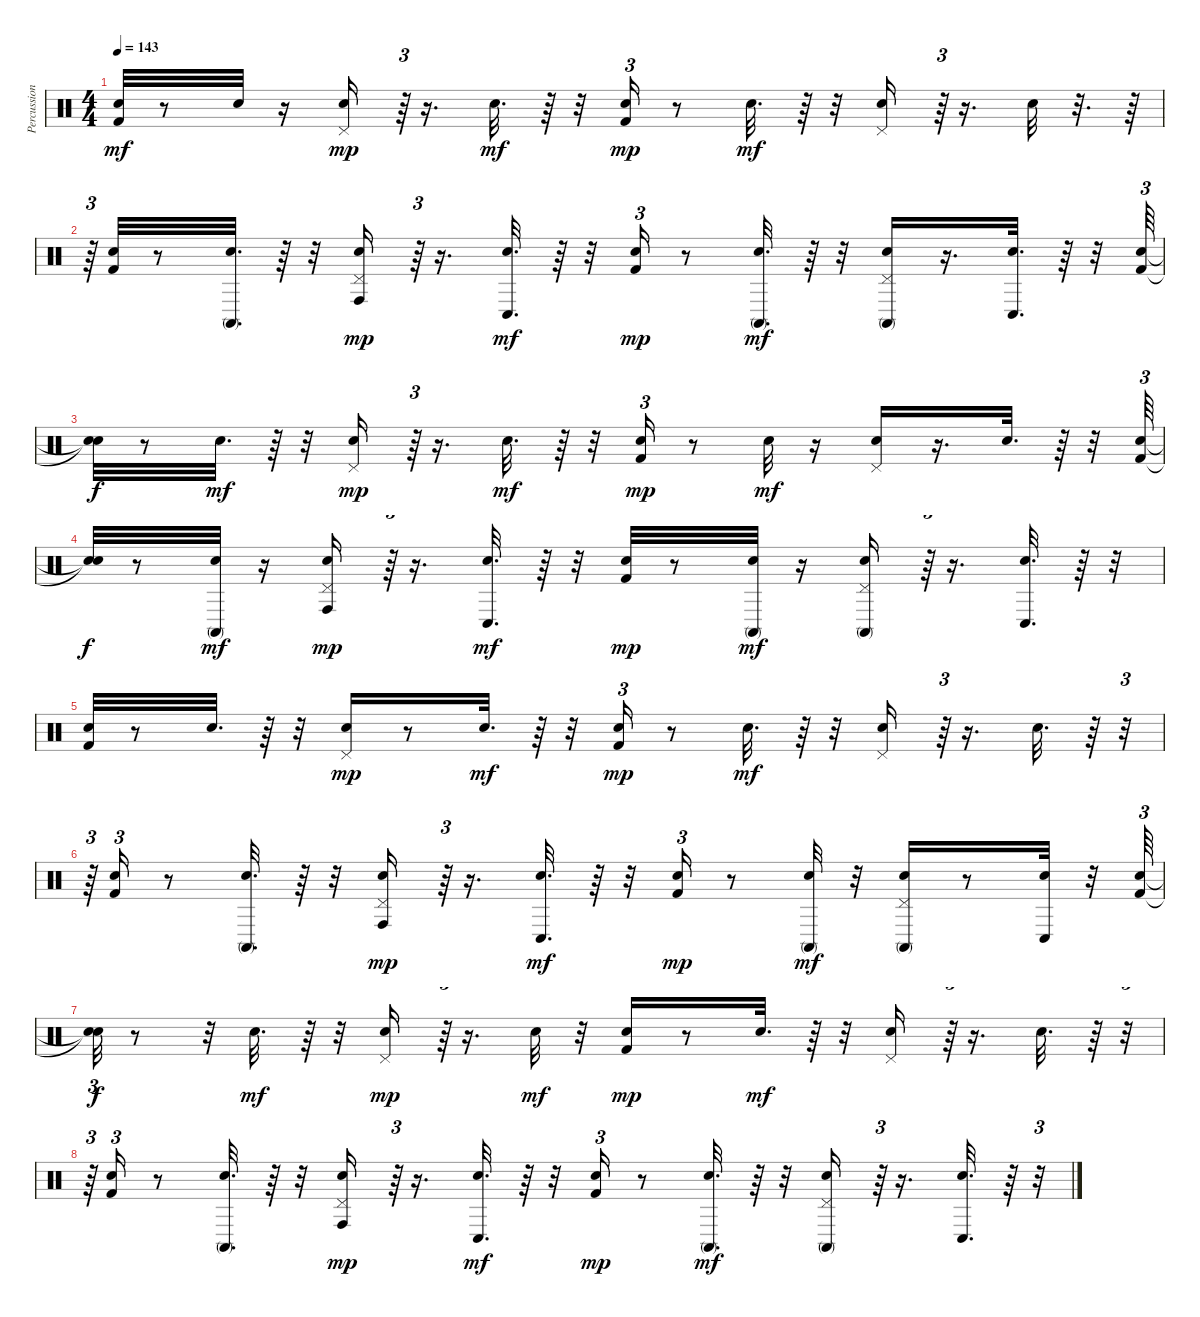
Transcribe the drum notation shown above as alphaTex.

\track ("Percussion" "Percussion") {instrument percussion}
\staff {score}
\articulation defaults
\ts (4 4)
\tempo 143
\clef neutral
\ks c
("Kick (hit) 2" "Snare (hit) 2").32{dy mf} r.8 "Snare (hit) 2".32 r.16 ("Hand Clap (hit)" "Pedal Hi-Hat (hit)").16{dy mp} r.64{tu (3 2)} r.16{d} "Hand Clap (hit)".32{d dy mf} r.64 r.32 ("Kick (hit) 2" "Snare (hit) 2").16{tu (3 2) dy mp} r.8 "Snare (hit) 2".32{d dy mf} r.64 r.32 ("Hand Clap (hit)" "Pedal Hi-Hat (hit)").16 r.64{tu (3 2)} r.16{d} "Hand Clap (hit)".32 r.32{d} r.64 |
r.64{tu (3 2)} ("Kick (hit) 2" "Snare (hit) 2").32 r.8 ("Snare (hit) 2" "Conga high (mute)").32{d} r.64 r.32 ("Hand Clap (hit)" "Pedal Hi-Hat (hit)" "Conga high (hit)").16{dy mp} r.64{tu (3 2)} r.16{d} ("Hand Clap (hit)" "Conga low (hit)").32{d dy mf} r.64 r.32 ("Kick (hit) 2" "Snare (hit) 2").16{tu (3 2) dy mp} r.8 ("Snare (hit) 2" "Conga high (mute)").32{d dy mf} r.64 r.32 ("Hand Clap (hit)" "Pedal Hi-Hat (hit)" "Conga high (mute)").16 r.16{d} ("Hand Clap (hit)" "Conga low (hit)").32{d} r.64 r.32 ("Kick (hit) 2" "Snare (hit) 2").64{tu (3 2)} |
("Snare (hit)"{t} "Snare (hit)"{t}).32{dy f} r.8 "Snare (hit) 2".32{d dy mf} r.64 r.32 ("Hand Clap (hit)" "Pedal Hi-Hat (hit)").16{dy mp} r.64{tu (3 2)} r.16{d} "Hand Clap (hit)".32{d dy mf} r.64 r.32 ("Kick (hit) 2" "Snare (hit) 2").16{tu (3 2) dy mp} r.8 "Snare (hit) 2".32{dy mf} r.16 ("Hand Clap (hit)" "Pedal Hi-Hat (hit)").16 r.16{d} "Hand Clap (hit)".32{d} r.64 r.32 ("Kick (hit) 2" "Snare (hit) 2").64{tu (3 2)} |
("Snare (hit)"{t} "Snare (hit)"{t}).32{dy f} r.8 ("Snare (hit) 2" "Conga high (mute)").32{dy mf} r.16 ("Pedal Hi-Hat (hit)" "Hand Clap (hit)" "Conga high (hit)").16{dy mp} r.64{tu (3 2)} r.16{d} ("Hand Clap (hit)" "Conga low (hit)").32{d dy mf} r.64 r.32 ("Kick (hit) 2" "Snare (hit) 2").32{dy mp} r.8 ("Snare (hit) 2" "Conga high (mute)").32{dy mf} r.16 ("Hand Clap (hit)" "Pedal Hi-Hat (hit)" "Conga high (mute)").16 r.64{tu (3 2)} r.16{d} ("Hand Clap (hit)" "Conga low (hit)").32{d} r.64 r.32 |
("Kick (hit) 2" "Snare (hit) 2").32 r.8 "Snare (hit) 2".32{d} r.64 r.32 ("Pedal Hi-Hat (hit)" "Hand Clap (hit)").16{dy mp} r.8 "Hand Clap (hit)".32{d dy mf} r.64 r.32 ("Kick (hit) 2" "Snare (hit) 2").16{tu (3 2) dy mp} r.8 "Snare (hit) 2".32{d dy mf} r.64 r.32 ("Hand Clap (hit)" "Pedal Hi-Hat (hit)").16 r.64{tu (3 2)} r.16{d} "Hand Clap (hit)".32{d} r.64 r.32{tu (3 2)} |
r.64{tu (3 2)} ("Kick (hit) 2" "Snare (hit) 2").16{tu (3 2)} r.8 ("Snare (hit) 2" "Conga high (mute)").32{d} r.64 r.32 ("Hand Clap (hit)" "Pedal Hi-Hat (hit)" "Conga high (hit)").16{dy mp} r.64{tu (3 2)} r.16{d} ("Hand Clap (hit)" "Conga low (hit)").32{d dy mf} r.64 r.32 ("Kick (hit) 2" "Snare (hit) 2").16{tu (3 2) dy mp} r.8 ("Snare (hit) 2" "Conga high (mute)").32{dy mf} r.32 ("Hand Clap (hit)" "Pedal Hi-Hat (hit)" "Conga high (mute)").16 r.8 ("Hand Clap (hit)" "Conga low (hit)").32 r.32 ("Kick (hit) 2" "Snare (hit) 2").64{tu (3 2)} |
("Snare (hit)"{t} "Snare (hit)"{t}).32{tu (3 2) dy f} r.8 r.32 "Snare (hit) 2".32{d dy mf} r.64 r.32 ("Hand Clap (hit)" "Pedal Hi-Hat (hit)").16{dy mp} r.64{tu (3 2)} r.16{d} "Hand Clap (hit)".32{dy mf} r.32 ("Kick (hit) 2" "Snare (hit) 2").16{dy mp} r.8 "Snare (hit) 2".32{d dy mf} r.64 r.32 ("Hand Clap (hit)" "Pedal Hi-Hat (hit)").16 r.64{tu (3 2)} r.16{d} "Hand Clap (hit)".32{d} r.64 r.32{tu (3 2)} |
r.64{tu (3 2)} ("Kick (hit) 2" "Snare (hit) 2").16{tu (3 2)} r.8 ("Snare (hit) 2" "Conga high (mute)").32{d} r.64 r.32 ("Hand Clap (hit)" "Pedal Hi-Hat (hit)" "Conga high (hit)").16{dy mp} r.64{tu (3 2)} r.16{d} ("Hand Clap (hit)" "Conga low (hit)").32{d dy mf} r.64 r.32 ("Kick (hit) 2" "Snare (hit) 2").16{tu (3 2) dy mp} r.8 ("Snare (hit) 2" "Conga high (mute)").32{d dy mf} r.64 r.32 ("Hand Clap (hit)" "Pedal Hi-Hat (hit)" "Conga high (mute)").16 r.64{tu (3 2)} r.16{d} ("Hand Clap (hit)" "Conga low (hit)").32{d} r.64 r.32{tu (3 2)}
